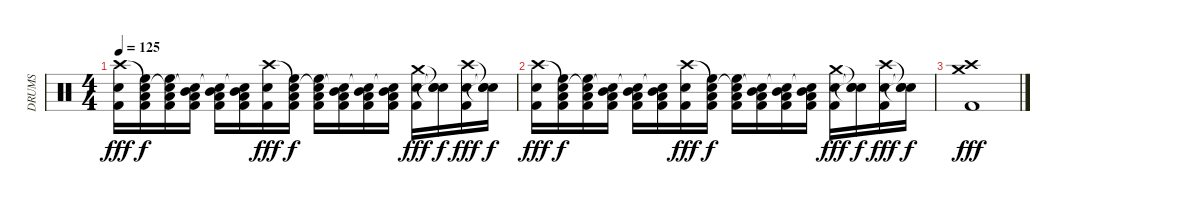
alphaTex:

\track ("DRUMS" "DRUMS") {instrument percussion}
\staff {score}
\articulation defaults
\ts (4 4)
\tempo 125
\clef neutral
\ks c
("Crash high (hit)" "Electric Snare (hit)" "Kick (hit) 2").16{dy fff} ("Snare (hit)"{t} "Low Tom (hit)" "High Floor Tom (hit)" "Kick (hit) 2").16{dy f} ("Snare (hit)"{t} "Low Tom (hit)" "High Floor Tom (hit)" "Kick (hit) 2").16 ("Snare (hit)"{t} "Low Floor Tom (hit)" "Mid Tom (hit)" "Kick (hit) 2").16 ("Snare (hit)"{t} "Low Floor Tom (hit)" "Mid Tom (hit)" "Kick (hit) 2").16 ("Snare (hit)"{t} "Low Floor Tom (hit)" "Mid Tom (hit)" "Kick (hit) 2").16 ("Crash high (hit)" "Electric Snare (hit)" "Kick (hit) 2").16{dy fff} ("Snare (hit)"{t} "Low Tom (hit)" "High Floor Tom (hit)" "Kick (hit) 2").16{dy f} ("Snare (hit)"{t} "Low Tom (hit)" "High Floor Tom (hit)" "Kick (hit) 2").16 ("Snare (hit)"{t} "Low Floor Tom (hit)" "Mid Tom (hit)" "Kick (hit) 2").16 ("Snare (hit)"{t} "Low Floor Tom (hit)" "Mid Tom (hit)" "Kick (hit) 2").16 ("Snare (hit)"{t} "Low Floor Tom (hit)" "Mid Tom (hit)" "Kick (hit) 2").16 ("Crash medium (hit)" "Electric Snare (hit)" "Kick (hit) 2").16{dy fff} ("Snare (hit)"{t} "Snare (hit)"{t} "Snare (hit)"{t}).16{dy f} ("Crash high (hit)" "Electric Snare (hit)" "Kick (hit) 2").16{dy fff} ("Snare (hit)"{t} "Snare (hit)"{t} "Snare (hit)"{t}).16{dy f} |
("Crash high (hit)" "Electric Snare (hit)" "Kick (hit) 2").16{dy fff} ("Snare (hit)"{t} "Low Tom (hit)" "High Floor Tom (hit)" "Kick (hit) 2").16{dy f} ("Snare (hit)"{t} "Low Tom (hit)" "High Floor Tom (hit)" "Kick (hit) 2").16 ("Snare (hit)"{t} "Low Floor Tom (hit)" "Mid Tom (hit)" "Kick (hit) 2").16 ("Snare (hit)"{t} "Low Floor Tom (hit)" "Mid Tom (hit)" "Kick (hit) 2").16 ("Snare (hit)"{t} "Low Floor Tom (hit)" "Mid Tom (hit)" "Kick (hit) 2").16 ("Crash high (hit)" "Electric Snare (hit)" "Kick (hit) 2").16{dy fff} ("Snare (hit)"{t} "Low Tom (hit)" "High Floor Tom (hit)" "Kick (hit) 2").16{dy f} ("Snare (hit)"{t} "Low Tom (hit)" "High Floor Tom (hit)" "Kick (hit) 2").16 ("Snare (hit)"{t} "Low Floor Tom (hit)" "Mid Tom (hit)" "Kick (hit) 2").16 ("Snare (hit)"{t} "Low Floor Tom (hit)" "Mid Tom (hit)" "Kick (hit) 2").16 ("Snare (hit)"{t} "Low Floor Tom (hit)" "Mid Tom (hit)" "Kick (hit) 2").16 ("Crash medium (hit)" "Electric Snare (hit)" "Kick (hit) 2").16{dy fff} ("Snare (hit)"{t} "Snare (hit)"{t} "Snare (hit)"{t}).16{dy f} ("Crash high (hit)" "Electric Snare (hit)" "Kick (hit) 2").16{dy fff} ("Snare (hit)"{t} "Snare (hit)"{t} "Snare (hit)"{t}).16{dy f} |
("Crash medium (hit)" "Crash high (hit)" "Kick (hit) 2").1{dy fff}
